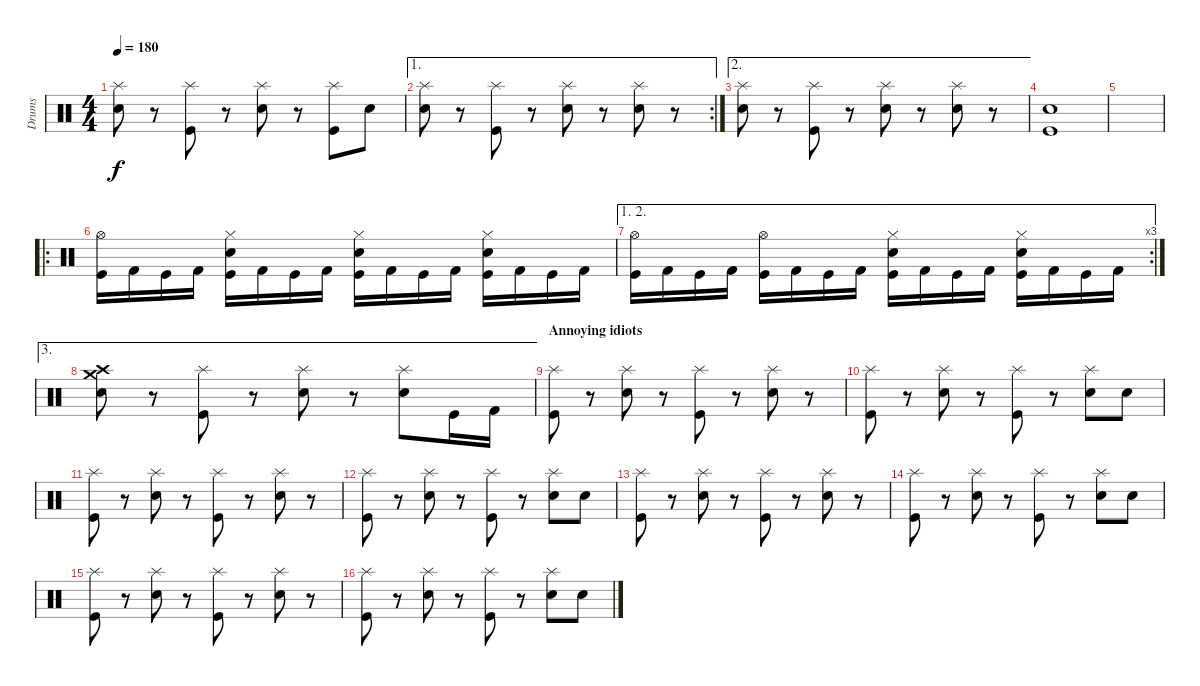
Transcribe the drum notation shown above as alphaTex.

\track ("Drums" "Drums") {instrument percussion}
\staff {score}
\articulation defaults
\ts (4 4)
\tempo 180
\clef neutral
\ks c
("Splash (hit)" "Electric Snare (hit)").8{dy f} r.8 ("Splash (hit)" "Kick (hit)").8 r.8 ("Splash (hit)" "Electric Snare (hit)").8 r.8 ("Splash (hit)" "Kick (hit)").8 "Electric Snare (hit)".8 |
\ae 1
\rc 2
("Splash (hit)" "Electric Snare (hit)").8 r.8 ("Splash (hit)" "Kick (hit)").8 r.8 ("Splash (hit)" "Electric Snare (hit)").8 r.8 ("Splash (hit)" "Electric Snare (hit)").8 r.8 |
\ae 2
("Splash (hit)" "Electric Snare (hit)").8 r.8 ("Splash (hit)" "Kick (hit)").8 r.8 ("Splash (hit)" "Electric Snare (hit)").8 r.8 ("Splash (hit)" "Electric Snare (hit)").8 r.8 |
("Electric Snare (hit)" "Kick (hit)").1 |
|
\ro
("Hi-Hat (open)" "Kick (hit)").16 "Kick (hit) 2".16 "Kick (hit)".16 "Kick (hit) 2".16 ("Hi-Hat (closed)" "Electric Snare (hit)" "Kick (hit)").16 "Kick (hit) 2".16 "Kick (hit)".16 "Kick (hit) 2".16 ("Hi-Hat (closed)" "Electric Snare (hit)" "Kick (hit)").16 "Kick (hit) 2".16 "Kick (hit)".16 "Kick (hit) 2".16 ("Hi-Hat (closed)" "Electric Snare (hit)" "Kick (hit)").16 "Kick (hit) 2".16 "Kick (hit)".16 "Kick (hit) 2".16 |
\ae (1 2)
\rc 3
("Hi-Hat (open)" "Kick (hit)").16 "Kick (hit) 2".16 "Kick (hit)".16 "Kick (hit) 2".16 ("Hi-Hat (open)" "Kick (hit)").16 "Kick (hit) 2".16 "Kick (hit)".16 "Kick (hit) 2".16 ("Hi-Hat (closed)" "Electric Snare (hit)" "Kick (hit)").16 "Kick (hit) 2".16 "Kick (hit)".16 "Kick (hit) 2".16 ("Hi-Hat (closed)" "Electric Snare (hit)" "Kick (hit)").16 "Kick (hit) 2".16 "Kick (hit)".16 "Kick (hit) 2".16 |
\ae 3
("Crash high (hit)" "Crash medium (hit)" "Electric Snare (hit)").8 r.8 ("Splash (hit)" "Kick (hit)").8 r.8 ("Splash (hit)" "Electric Snare (hit)").8 r.8 ("Splash (hit)" "Electric Snare (hit)").8 "Kick (hit)".16 "Kick (hit) 2".16 |
\section ("" "Annoying idiots")
("Splash (hit)" "Kick (hit)").8 r.8 ("Splash (hit)" "Electric Snare (hit)").8 r.8 ("Splash (hit)" "Kick (hit)").8 r.8 ("Splash (hit)" "Electric Snare (hit)").8 r.8 |
("Splash (hit)" "Kick (hit)").8 r.8 ("Splash (hit)" "Electric Snare (hit)").8 r.8 ("Splash (hit)" "Kick (hit)").8 r.8 ("Splash (hit)" "Electric Snare (hit)").8 "Electric Snare (hit)".8 |
("Splash (hit)" "Kick (hit)").8 r.8 ("Splash (hit)" "Electric Snare (hit)").8 r.8 ("Splash (hit)" "Kick (hit)").8 r.8 ("Splash (hit)" "Electric Snare (hit)").8 r.8 |
("Splash (hit)" "Kick (hit)").8 r.8 ("Splash (hit)" "Electric Snare (hit)").8 r.8 ("Splash (hit)" "Kick (hit)").8 r.8 ("Splash (hit)" "Electric Snare (hit)").8 "Electric Snare (hit)".8 |
("Splash (hit)" "Kick (hit)").8 r.8 ("Splash (hit)" "Electric Snare (hit)").8 r.8 ("Splash (hit)" "Kick (hit)").8 r.8 ("Splash (hit)" "Electric Snare (hit)").8 r.8 |
("Splash (hit)" "Kick (hit)").8 r.8 ("Splash (hit)" "Electric Snare (hit)").8 r.8 ("Splash (hit)" "Kick (hit)").8 r.8 ("Splash (hit)" "Electric Snare (hit)").8 "Electric Snare (hit)".8 |
("Splash (hit)" "Kick (hit)").8 r.8 ("Splash (hit)" "Electric Snare (hit)").8 r.8 ("Splash (hit)" "Kick (hit)").8 r.8 ("Splash (hit)" "Electric Snare (hit)").8 r.8 |
("Splash (hit)" "Kick (hit)").8 r.8 ("Splash (hit)" "Electric Snare (hit)").8 r.8 ("Splash (hit)" "Kick (hit)").8 r.8 ("Splash (hit)" "Electric Snare (hit)").8 "Electric Snare (hit)".8
